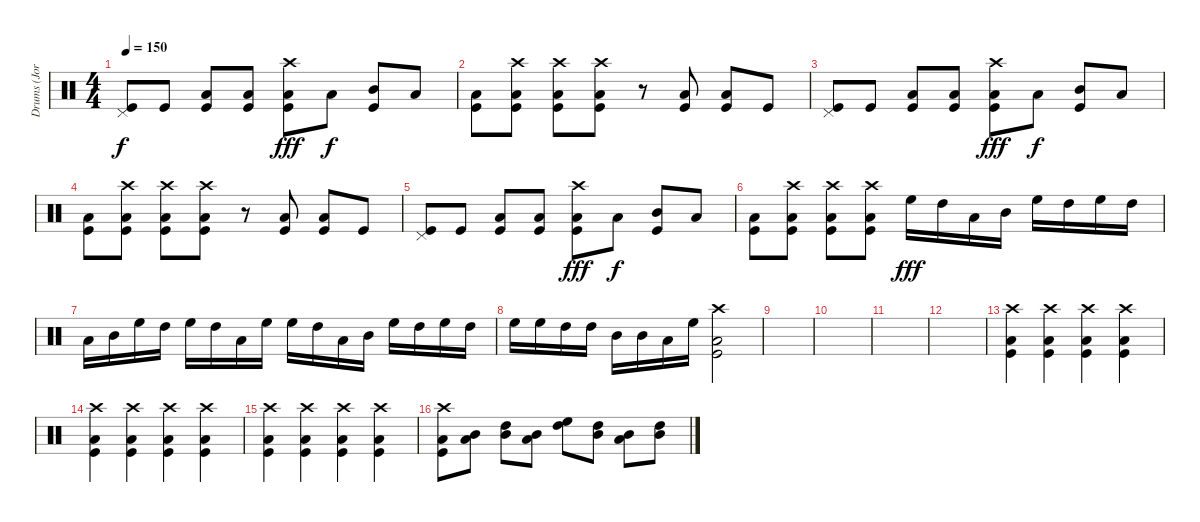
\track ("Drums (Jordan Hastings)" "Drums (Jor") {instrument percussion}
\staff {score}
\articulation defaults
\ts (4 4)
\tempo 150
\clef neutral
\ks c
("Pedal Hi-Hat (hit)" "Kick (hit)").8{dy f} "Kick (hit)".8 ("Low Floor Tom (hit)" "Kick (hit)").8 ("Low Floor Tom (hit)" "Kick (hit)").8 ("Crash high (hit)" "Low Floor Tom (hit)" "Kick (hit)").8{dy fff} "Low Tom (hit)".8{dy f} ("Kick (hit)" "Mid Tom (hit)").8 "Low Tom (hit)".8 |
("Low Floor Tom (hit)" "Kick (hit)").8 ("Crash high (hit)" "Low Floor Tom (hit)" "Kick (hit)").8 ("Crash high (hit)" "Low Floor Tom (hit)" "Kick (hit)").8 ("Crash high (hit)" "Low Floor Tom (hit)" "Kick (hit)").8 r.8 ("Low Floor Tom (hit)" "Kick (hit)").8 ("Low Floor Tom (hit)" "Kick (hit)").8 "Kick (hit)".8 |
("Pedal Hi-Hat (hit)" "Kick (hit)").8 "Kick (hit)".8 ("Low Floor Tom (hit)" "Kick (hit)").8 ("Low Floor Tom (hit)" "Kick (hit)").8 ("Crash high (hit)" "Low Floor Tom (hit)" "Kick (hit)").8{dy fff} "Low Tom (hit)".8{dy f} ("Kick (hit)" "Mid Tom (hit)").8 "Low Tom (hit)".8 |
("Low Floor Tom (hit)" "Kick (hit)").8 ("Crash high (hit)" "Low Floor Tom (hit)" "Kick (hit)").8 ("Crash high (hit)" "Low Floor Tom (hit)" "Kick (hit)").8 ("Crash high (hit)" "Low Floor Tom (hit)" "Kick (hit)").8 r.8 ("Low Floor Tom (hit)" "Kick (hit)").8 ("Low Floor Tom (hit)" "Kick (hit)").8 "Kick (hit)".8 |
("Pedal Hi-Hat (hit)" "Kick (hit)").8 "Kick (hit)".8 ("Low Floor Tom (hit)" "Kick (hit)").8 ("Low Floor Tom (hit)" "Kick (hit)").8 ("Crash high (hit)" "Low Floor Tom (hit)" "Kick (hit)").8{dy fff} "Low Tom (hit)".8{dy f} ("Kick (hit)" "Mid Tom (hit)").8 "Low Tom (hit)".8 |
("Low Floor Tom (hit)" "Kick (hit)").8 ("Crash high (hit)" "Low Floor Tom (hit)" "Kick (hit)").8 ("Crash high (hit)" "Low Floor Tom (hit)" "Kick (hit)").8 ("Crash high (hit)" "Low Floor Tom (hit)" "Kick (hit)").8 "High Floor Tom (hit)".16{dy fff} "High Tom (hit)".16 "Low Tom (hit)".16 "Mid Tom (hit)".16 "High Floor Tom (hit)".16 "High Tom (hit)".16 "High Floor Tom (hit)".16 "High Tom (hit)".16 |
"Low Tom (hit)".16 "Mid Tom (hit)".16 "High Floor Tom (hit)".16 "High Tom (hit)".16 "High Floor Tom (hit)".16 "High Tom (hit)".16 "Low Tom (hit)".16 "High Floor Tom (hit)".16 "High Floor Tom (hit)".16 "High Tom (hit)".16 "Low Tom (hit)".16 "Mid Tom (hit)".16 "High Floor Tom (hit)".16 "High Tom (hit)".16 "High Floor Tom (hit)".16 "High Tom (hit)".16 |
"High Floor Tom (hit)".16 "High Floor Tom (hit)".16 "High Tom (hit)".16 "High Tom (hit)".16 "Mid Tom (hit)".16 "Mid Tom (hit)".16 "Low Tom (hit)".16 "High Floor Tom (hit)".16 ("Crash high (hit)" "Low Floor Tom (hit)" "Kick (hit)").2 |
|
|
|
|
("Crash high (hit)" "Low Floor Tom (hit)" "Kick (hit)").4 ("Crash high (hit)" "Low Floor Tom (hit)" "Kick (hit)").4 ("Crash high (hit)" "Low Floor Tom (hit)" "Kick (hit)").4 ("Crash high (hit)" "Low Floor Tom (hit)" "Kick (hit)").4 |
("Crash high (hit)" "Low Floor Tom (hit)" "Kick (hit)").4 ("Crash high (hit)" "Low Floor Tom (hit)" "Kick (hit)").4 ("Crash high (hit)" "Low Floor Tom (hit)" "Kick (hit)").4 ("Crash high (hit)" "Low Floor Tom (hit)" "Kick (hit)").4 |
("Crash high (hit)" "Low Floor Tom (hit)" "Kick (hit)").4 ("Crash high (hit)" "Low Floor Tom (hit)" "Kick (hit)").4 ("Crash high (hit)" "Low Floor Tom (hit)" "Kick (hit)").4 ("Crash high (hit)" "Low Floor Tom (hit)" "Kick (hit)").4 |
("Crash high (hit)" "Low Floor Tom (hit)" "Kick (hit)").8 ("Mid Tom (hit)" "Low Tom (hit)").8 ("Mid Tom (hit)" "High Tom (hit)").8 ("Low Tom (hit)" "Mid Tom (hit)").8 ("High Floor Tom (hit)" "High Tom (hit)").8 ("Mid Tom (hit)" "High Tom (hit)").8 ("Mid Tom (hit)" "Low Tom (hit)").8 ("Mid Tom (hit)" "High Tom (hit)").8
